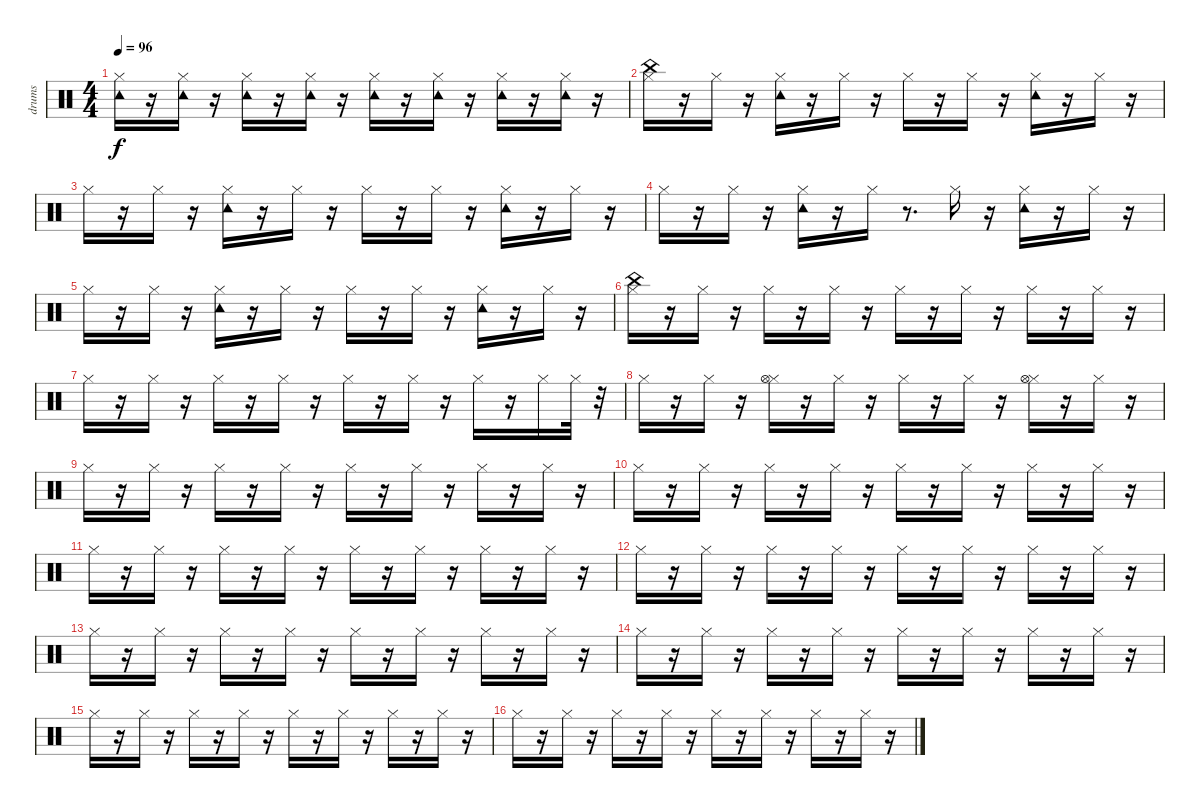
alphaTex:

\track ("drums" "drums") {instrument percussion}
\staff {score}
\articulation defaults
\ts (4 4)
\tempo 96
\clef neutral
\ks c
("Tambourine (hit)" "Hi-Hat (closed)").16{dy f} r.16 ("Hi-Hat (closed)" "Tambourine (hit)").16 r.16 ("Hi-Hat (closed)" "Tambourine (hit)").16 r.16 ("Tambourine (hit)" "Hi-Hat (closed)").16 r.16 ("Hi-Hat (closed)" "Tambourine (hit)").16 r.16 ("Hi-Hat (closed)" "Tambourine (hit)").16 r.16 ("Tambourine (hit)" "Hi-Hat (closed)").16 r.16 ("Hi-Hat (closed)" "Tambourine (hit)").16 r.16 |
("China (hit)" "Hi-Hat (closed)").16 r.16 "Hi-Hat (closed)".16 r.16 ("Hi-Hat (closed)" "Tambourine (hit)").16 r.16 "Hi-Hat (closed)".16 r.16 "Hi-Hat (closed)".16 r.16 "Hi-Hat (closed)".16 r.16 ("Tambourine (hit)" "Hi-Hat (closed)").16 r.16 "Hi-Hat (closed)".16 r.16 |
"Hi-Hat (closed)".16 r.16 "Hi-Hat (closed)".16 r.16 ("Hi-Hat (closed)" "Tambourine (hit)").16 r.16 "Hi-Hat (closed)".16 r.16 "Hi-Hat (closed)".16 r.16 "Hi-Hat (closed)".16 r.16 ("Hi-Hat (closed)" "Tambourine (hit)").16 r.16 "Hi-Hat (closed)".16 r.16 |
"Hi-Hat (closed)".16 r.16 "Hi-Hat (closed)".16 r.16 ("Tambourine (hit)" "Hi-Hat (closed)").16 r.16 "Hi-Hat (closed)".16 r.8{d} "Hi-Hat (closed)".16 r.16 ("Hi-Hat (closed)" "Tambourine (hit)").16 r.16 "Hi-Hat (closed)".16 r.16 |
"Hi-Hat (closed)".16 r.16 "Hi-Hat (closed)".16 r.16 ("Hi-Hat (closed)" "Tambourine (hit)").16 r.16 "Hi-Hat (closed)".16 r.16 "Hi-Hat (closed)".16 r.16 "Hi-Hat (closed)".16 r.16 ("Hi-Hat (closed)" "Tambourine (hit)").16 r.16 "Hi-Hat (closed)".16 r.16 |
("Hi-Hat (closed)" "China (hit)").16 r.16 "Hi-Hat (closed)".16 r.16 "Hi-Hat (closed)".16 r.16 "Hi-Hat (closed)".16 r.16 "Hi-Hat (closed)".16 r.16 "Hi-Hat (closed)".16 r.16 "Hi-Hat (closed)".16 r.16 "Hi-Hat (closed)".16 r.16 |
"Hi-Hat (closed)".16 r.16 "Hi-Hat (closed)".16 r.16 "Hi-Hat (closed)".16 r.16 "Hi-Hat (closed)".16 r.16 "Hi-Hat (closed)".16 r.16 "Hi-Hat (closed)".16 r.16 "Hi-Hat (closed)".16 r.16 "Hi-Hat (closed)".16 "Hi-Hat (closed)".32 r.32 |
"Hi-Hat (closed)".16 r.16 "Hi-Hat (closed)".16 r.16 ("Hi-Hat (closed)" "Hi-Hat (open)").16 r.16 "Hi-Hat (closed)".16 r.16 "Hi-Hat (closed)".16 r.16 "Hi-Hat (closed)".16 r.16 ("Hi-Hat (closed)" "Hi-Hat (open)").16 r.16 "Hi-Hat (closed)".16 r.16 |
"Hi-Hat (closed)".16 r.16 "Hi-Hat (closed)".16 r.16 "Hi-Hat (closed)".16 r.16 "Hi-Hat (closed)".16 r.16 "Hi-Hat (closed)".16 r.16 "Hi-Hat (closed)".16 r.16 "Hi-Hat (closed)".16 r.16 "Hi-Hat (closed)".16 r.16 |
"Hi-Hat (closed)".16 r.16 "Hi-Hat (closed)".16 r.16 "Hi-Hat (closed)".16 r.16 "Hi-Hat (closed)".16 r.16 "Hi-Hat (closed)".16 r.16 "Hi-Hat (closed)".16 r.16 "Hi-Hat (closed)".16 r.16 "Hi-Hat (closed)".16 r.16 |
"Hi-Hat (closed)".16 r.16 "Hi-Hat (closed)".16 r.16 "Hi-Hat (closed)".16 r.16 "Hi-Hat (closed)".16 r.16 "Hi-Hat (closed)".16 r.16 "Hi-Hat (closed)".16 r.16 "Hi-Hat (closed)".16 r.16 "Hi-Hat (closed)".16 r.16 |
"Hi-Hat (closed)".16 r.16 "Hi-Hat (closed)".16 r.16 "Hi-Hat (closed)".16 r.16 "Hi-Hat (closed)".16 r.16 "Hi-Hat (closed)".16 r.16 "Hi-Hat (closed)".16 r.16 "Hi-Hat (closed)".16 r.16 "Hi-Hat (closed)".16 r.16 |
"Hi-Hat (closed)".16 r.16 "Hi-Hat (closed)".16 r.16 "Hi-Hat (closed)".16 r.16 "Hi-Hat (closed)".16 r.16 "Hi-Hat (closed)".16 r.16 "Hi-Hat (closed)".16 r.16 "Hi-Hat (closed)".16 r.16 "Hi-Hat (closed)".16 r.16 |
"Hi-Hat (closed)".16 r.16 "Hi-Hat (closed)".16 r.16 "Hi-Hat (closed)".16 r.16 "Hi-Hat (closed)".16 r.16 "Hi-Hat (closed)".16 r.16 "Hi-Hat (closed)".16 r.16 "Hi-Hat (closed)".16 r.16 "Hi-Hat (closed)".16 r.16 |
"Hi-Hat (closed)".16 r.16 "Hi-Hat (closed)".16 r.16 "Hi-Hat (closed)".16 r.16 "Hi-Hat (closed)".16 r.16 "Hi-Hat (closed)".16 r.16 "Hi-Hat (closed)".16 r.16 "Hi-Hat (closed)".16 r.16 "Hi-Hat (closed)".16 r.16 |
"Hi-Hat (closed)".16 r.16 "Hi-Hat (closed)".16 r.16 "Hi-Hat (closed)".16 r.16 "Hi-Hat (closed)".16 r.16 "Hi-Hat (closed)".16 r.16 "Hi-Hat (closed)".16 r.16 "Hi-Hat (closed)".16 r.16 "Hi-Hat (closed)".16 r.16
